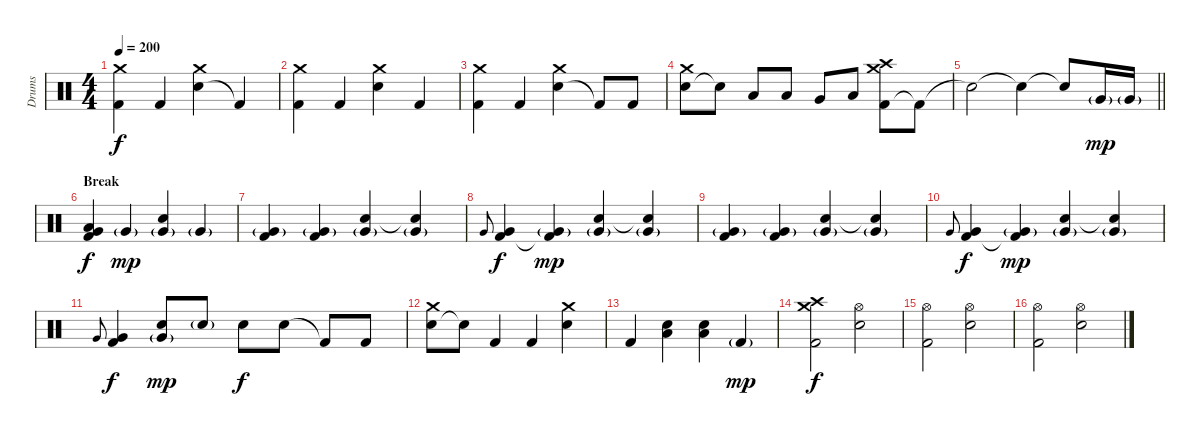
\track ("Drums" "Drums") {instrument percussion}
\staff {score}
\articulation defaults
\ts (4 4)
\tempo 200
\clef neutral
\ks c
("Kick (hit) 2" "Crash medium (hit)").4{dy f} "Kick (hit) 2".4 ("Electric Snare (hit)" "Crash medium (hit)").4 "Kick (hit) 2"{t}.4 |
("Kick (hit) 2" "Crash medium (hit)").4 "Kick (hit) 2".4 ("Electric Snare (hit)" "Crash medium (hit)").4 "Kick (hit) 2".4 |
("Kick (hit) 2" "Crash medium (hit)").4 "Kick (hit) 2".4 ("Electric Snare (hit)" "Crash medium (hit)").4 "Kick (hit) 2"{t}.8 "Kick (hit) 2".8 |
("Electric Snare (hit)" "Crash medium (hit)").8 "Electric Snare (hit)"{t}.8 "Low Tom (hit)".8 "Low Tom (hit)".8 "Very Low Tom (hit)".8 "Low Floor Tom (hit)".8 ("Kick (hit) 2" "Crash medium (hit)" "Crash high (hit)").8 "Kick (hit) 2"{t}.8 |
\barLineRight lightlight "Snare (hit)"{t}.2 "Snare (hit)"{t}.4 "Snare (hit)"{t}.8 "Very Low Tom (hit)"{g}.16{dy mp} "Very Low Tom (hit)"{g}.16
|
\section ("" "Break")
("Low Tom (hit)" "Very Low Tom (hit)" "Kick (hit) 2").4{dy f} "Very Low Tom (hit)"{g}.4{dy mp} ("Electric Snare (hit)" "Very Low Tom (hit)"{g}).4 "Very Low Tom (hit)"{g}.4 |
("Kick (hit) 2" "Very Low Tom (hit)"{g}).4 ("Kick (hit) 2" "Very Low Tom (hit)"{g}).4 ("Electric Snare (hit)" "Very Low Tom (hit)"{g}).4 ("Snare (hit)"{t} "Very Low Tom (hit)"{g}).4 |
"Very Low Tom (hit)".8{gr onbeat} ("Kick (hit) 2" "Very Low Tom (hit)").4{dy f} ("Kick (hit) 2"{t} "Very Low Tom (hit)"{g}).4{dy mp} ("Electric Snare (hit)" "Very Low Tom (hit)"{g}).4 ("Snare (hit)"{t} "Very Low Tom (hit)"{g}).4 |
("Kick (hit) 2" "Very Low Tom (hit)"{g}).4 ("Kick (hit) 2" "Very Low Tom (hit)"{g}).4 ("Electric Snare (hit)" "Very Low Tom (hit)"{g}).4 ("Snare (hit)"{t} "Very Low Tom (hit)"{g}).4 |
"Very Low Tom (hit)".8{gr onbeat} ("Kick (hit) 2" "Very Low Tom (hit)").4{dy f} ("Kick (hit) 2"{t} "Very Low Tom (hit)"{g}).4{dy mp} ("Electric Snare (hit)" "Very Low Tom (hit)"{g}).4 ("Snare (hit)"{t} "Very Low Tom (hit)"{g}).4 |
"Very Low Tom (hit)".8{gr onbeat} ("Kick (hit) 2" "Very Low Tom (hit)").4{dy f} ("Electric Snare (hit)" "Very Low Tom (hit)"{g}).8{dy mp} "Electric Snare (hit)"{g}.8 "Electric Snare (hit)".8{dy f} "Electric Snare (hit)".8 "Kick (hit) 2"{t}.8 "Kick (hit) 2".8 |
("Electric Snare (hit)" "Crash medium (hit)").8 "Electric Snare (hit)"{t}.8 "Kick (hit) 2".4 "Kick (hit) 2".4 ("Electric Snare (hit)" "Crash medium (hit)").4 |
"Kick (hit) 2".4 ("Electric Snare (hit)" "Low Floor Tom (hit)").4 ("Electric Snare (hit)" "Low Floor Tom (hit)").4 "Kick (hit) 2"{g}.4{dy mp} |
("Kick (hit) 2" "Crash medium (hit)" "Crash high (hit)").2{dy f} ("Electric Snare (hit)" "Hi-Hat (open)").2 |
("Kick (hit) 2" "Hi-Hat (open)").2 ("Electric Snare (hit)" "Hi-Hat (open)").2 |
("Kick (hit) 2" "Hi-Hat (open)").2 ("Electric Snare (hit)" "Hi-Hat (open)").2
